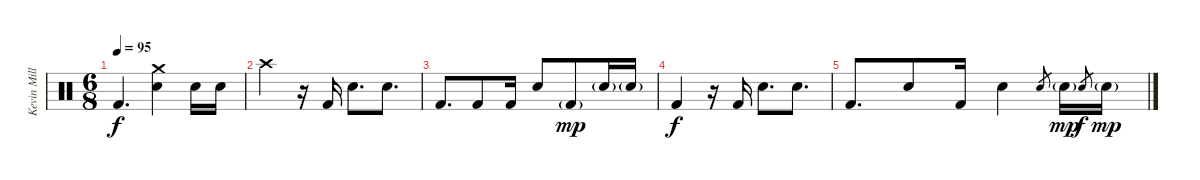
\track ("Kevin Miller (Drums)" "Kevin Mill") {instrument percussion}
\staff {score}
\articulation defaults
\ts (6 8)
\tempo 95
\clef neutral
\ks c "Kick (hit) 2".4{d dy f}
("Electric Snare (hit)" "Crash medium (hit)").4 "Electric Snare (hit)".16 "Electric Snare (hit)".16 |
"Crash high (hit)".4 r.16 "Kick (hit) 2".16 "Electric Snare (hit)".8{d} "Electric Snare (hit)".8{d} |
"Kick (hit) 2".8{d} "Kick (hit) 2".8 "Kick (hit) 2".16 "Electric Snare (hit)".8 "Kick (hit) 2"{g}.8{dy mp} "Electric Snare (hit)"{g}.16 "Electric Snare (hit)"{g}.16 |
"Kick (hit) 2".4{dy f} r.16 "Kick (hit) 2".16 "Electric Snare (hit)".8{d} "Electric Snare (hit)".8{d} |
"Kick (hit) 2".8{d} "Electric Snare (hit)".8 "Kick (hit) 2".16 "Electric Snare (hit)".4 "Electric Snare (hit)".8{gr} "Electric Snare (hit)"{g}.16{dy mp} "Electric Snare (hit)".8{gr dy f} "Electric Snare (hit)"{g}.16{dy mp}
